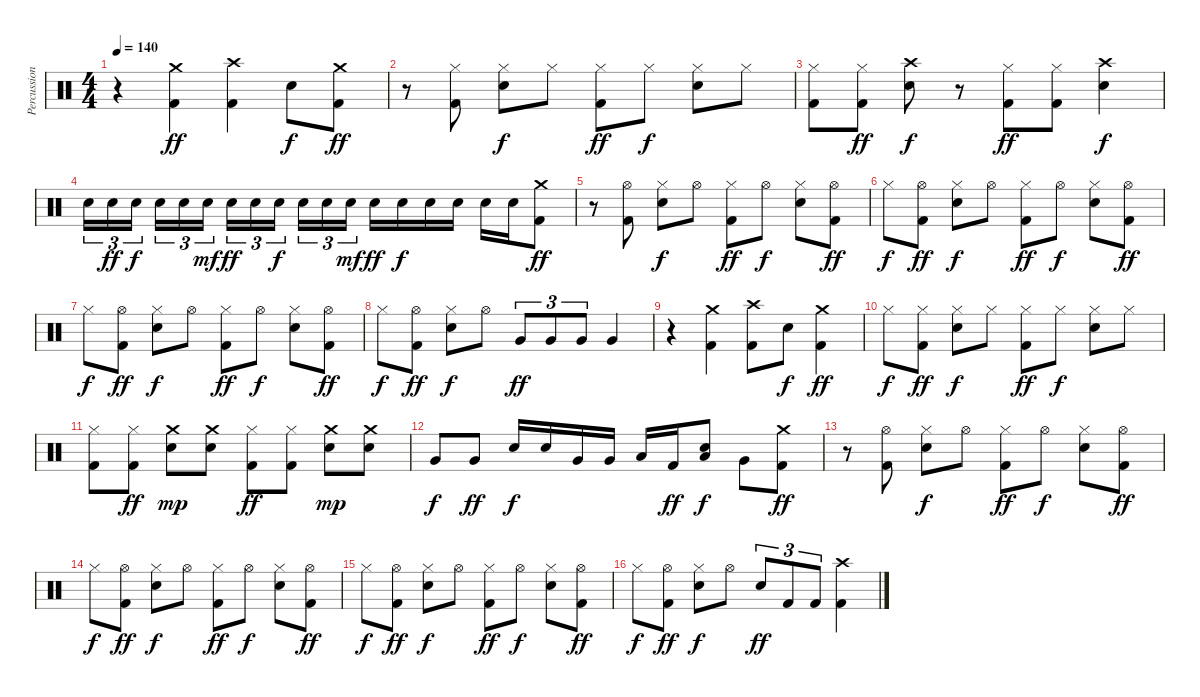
\track ("Percussion" "Percussion") {instrument percussion}
\staff {score}
\articulation defaults
\ts (4 4)
\tempo 140
\clef neutral
\ks c
r.4{dy ff} ("Kick (hit) 2" "Crash medium (hit)").4 ("Kick (hit) 2" "Crash high (hit)").4 "Snare (hit) 2".8{dy f} ("Kick (hit) 2" "Crash medium (hit)").8{dy ff} |
r.8 ("Kick (hit) 2" "Hi-Hat (closed)").8 ("Snare (hit) 2" "Hi-Hat (closed)").8{dy f} "Hi-Hat (closed)".8 ("Kick (hit) 2" "Hi-Hat (closed)").8{dy ff} "Hi-Hat (closed)".8{dy f} ("Snare (hit) 2" "Hi-Hat (closed)").8 "Hi-Hat (closed)".8 |
("Kick (hit) 2" "Hi-Hat (closed)").8 ("Kick (hit) 2" "Hi-Hat (closed)").8{dy ff} ("Snare (hit) 2" "Crash high (hit)").8{dy f} r.8 ("Kick (hit) 2" "Hi-Hat (closed)").8{dy ff} ("Kick (hit) 2" "Hi-Hat (closed)").8 ("Snare (hit) 2" "Crash high (hit)").4{dy f} |
"Snare (hit) 2".16{tu (3 2)} "Snare (hit) 2".16{tu (3 2) dy ff} "Snare (hit) 2".16{tu (3 2) dy f} "Snare (hit) 2".16{tu (3 2)} "Snare (hit) 2".16{tu (3 2)} "Snare (hit) 2".16{tu (3 2) dy mf} "Snare (hit) 2".16{tu (3 2) dy ff} "Snare (hit) 2".16{tu (3 2)} "Snare (hit) 2".16{tu (3 2) dy f} "Snare (hit) 2".16{tu (3 2)} "Snare (hit) 2".16{tu (3 2)} "Snare (hit) 2".16{tu (3 2) dy mf} "Snare (hit) 2".16{dy ff} "Snare (hit) 2".16{dy f} "Snare (hit) 2".16 "Snare (hit) 2".16 "Snare (hit) 2".16 "Snare (hit) 2".16 ("Kick (hit) 2" "Crash medium (hit)").8{dy ff} |
r.8 ("Kick (hit) 2" "Hi-Hat (open)").8 ("Snare (hit) 2" "Hi-Hat (closed)").8{dy f} "Hi-Hat (open)".8 ("Kick (hit) 2" "Hi-Hat (closed)").8{dy ff} "Hi-Hat (open)".8{dy f} ("Snare (hit) 2" "Hi-Hat (closed)").8 ("Kick (hit) 2" "Hi-Hat (open)").8{dy ff} |
"Hi-Hat (closed)".8{dy f} ("Kick (hit) 2" "Hi-Hat (open)").8{dy ff} ("Snare (hit) 2" "Hi-Hat (closed)").8{dy f} "Hi-Hat (open)".8 ("Kick (hit) 2" "Hi-Hat (closed)").8{dy ff} "Hi-Hat (open)".8{dy f} ("Snare (hit) 2" "Hi-Hat (closed)").8 ("Kick (hit) 2" "Hi-Hat (open)").8{dy ff} |
"Hi-Hat (closed)".8{dy f} ("Kick (hit) 2" "Hi-Hat (open)").8{dy ff} ("Snare (hit) 2" "Hi-Hat (closed)").8{dy f} "Hi-Hat (open)".8 ("Kick (hit) 2" "Hi-Hat (closed)").8{dy ff} "Hi-Hat (open)".8{dy f} ("Snare (hit) 2" "Hi-Hat (closed)").8 ("Kick (hit) 2" "Hi-Hat (open)").8{dy ff} |
"Hi-Hat (closed)".8{dy f} ("Kick (hit) 2" "Hi-Hat (open)").8{dy ff} ("Snare (hit) 2" "Hi-Hat (closed)").8{dy f} "Hi-Hat (open)".8 "Very Low Tom (hit)".8{tu (3 2) dy ff} "Very Low Tom (hit)".8{tu (3 2)} "Very Low Tom (hit)".8{tu (3 2)} "Very Low Tom (hit)".4 |
r.4 ("Kick (hit) 2" "Crash medium (hit)").4 ("Kick (hit) 2" "Crash high (hit)").8 "Snare (hit) 2".8{dy f} ("Kick (hit) 2" "Crash medium (hit)").4{dy ff} |
"Hi-Hat (closed)".8{dy f} ("Kick (hit) 2" "Hi-Hat (closed)").8{dy ff} ("Snare (hit) 2" "Hi-Hat (closed)").8{dy f} "Hi-Hat (closed)".8 ("Kick (hit) 2" "Hi-Hat (closed)").8{dy ff} "Hi-Hat (closed)".8{dy f} ("Snare (hit) 2" "Hi-Hat (closed)").8 "Hi-Hat (closed)".8 |
("Kick (hit) 2" "Hi-Hat (closed)").8 ("Kick (hit) 2" "Hi-Hat (closed)").8{dy ff} ("Snare (hit) 2" "Crash medium (hit)").8{dy mp} ("Snare (hit) 2" "Crash medium (hit)").8 ("Kick (hit) 2" "Hi-Hat (closed)").8{dy ff} ("Kick (hit) 2" "Hi-Hat (closed)").8 ("Snare (hit) 2" "Crash medium (hit)").8{dy mp} ("Snare (hit) 2" "Crash medium (hit)").8 |
"Very Low Tom (hit)".8{dy f} "Very Low Tom (hit)".8{dy ff} "Snare (hit) 2".16{dy f} "Snare (hit) 2".16 "Very Low Tom (hit)".16 "Very Low Tom (hit)".16 "Low Floor Tom (hit)".16 "Kick (hit) 2".16{dy ff} ("Snare (hit) 2" "Low Floor Tom (hit)").8{dy f} "Very Low Tom (hit)".8 ("Kick (hit) 2" "Crash medium (hit)").8{dy ff} |
r.8 ("Kick (hit) 2" "Hi-Hat (open)").8 ("Snare (hit) 2" "Hi-Hat (closed)").8{dy f} "Hi-Hat (open)".8 ("Kick (hit) 2" "Hi-Hat (closed)").8{dy ff} "Hi-Hat (open)".8{dy f} ("Snare (hit) 2" "Hi-Hat (closed)").8 ("Kick (hit) 2" "Hi-Hat (open)").8{dy ff} |
"Hi-Hat (closed)".8{dy f} ("Kick (hit) 2" "Hi-Hat (open)").8{dy ff} ("Snare (hit) 2" "Hi-Hat (closed)").8{dy f} "Hi-Hat (open)".8 ("Kick (hit) 2" "Hi-Hat (closed)").8{dy ff} "Hi-Hat (open)".8{dy f} ("Snare (hit) 2" "Hi-Hat (closed)").8 ("Kick (hit) 2" "Hi-Hat (open)").8{dy ff} |
"Hi-Hat (closed)".8{dy f} ("Kick (hit) 2" "Hi-Hat (open)").8{dy ff} ("Snare (hit) 2" "Hi-Hat (closed)").8{dy f} "Hi-Hat (open)".8 ("Kick (hit) 2" "Hi-Hat (closed)").8{dy ff} "Hi-Hat (open)".8{dy f} ("Snare (hit) 2" "Hi-Hat (closed)").8 ("Kick (hit) 2" "Hi-Hat (open)").8{dy ff} |
"Hi-Hat (closed)".8{dy f} ("Kick (hit) 2" "Hi-Hat (open)").8{dy ff} ("Snare (hit) 2" "Hi-Hat (closed)").8{dy f} "Hi-Hat (open)".8 "Snare (hit) 2".8{tu (3 2) dy ff} "Kick (hit) 2".8{tu (3 2)} "Kick (hit) 2".8{tu (3 2)} ("Kick (hit) 2" "Crash high (hit)").4
